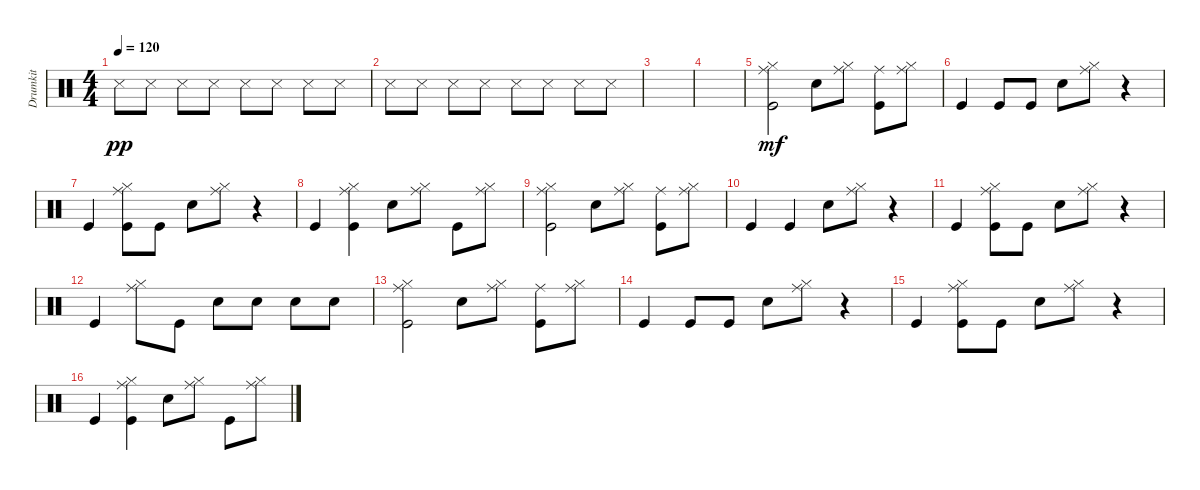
\track ("Drumkit" "Drumkit") {instrument percussion}
\staff {score}
\articulation defaults
\ts (4 4)
\tempo 120
\clef neutral
\ks c "Snare (side stick) 3".8{dy pp} "Snare (side stick) 3".8 "Snare (side stick) 3".8 "Snare (side stick) 3".8 "Snare (side stick) 3".8 "Snare (side stick) 3".8 "Snare (side stick) 3".8 "Snare (side stick) 3".8
|
"Snare (side stick) 3".8 "Snare (side stick) 3".8 "Snare (side stick) 3".8 "Snare (side stick) 3".8 "Snare (side stick) 3".8 "Snare (side stick) 3".8 "Snare (side stick) 3".8 "Snare (side stick) 3".8 |
|
|
("Kick (hit)" "Ride (middle)" "Hi-Hat (closed)").2{dy mf} "Snare (hit) 2".8 ("Hi-Hat (closed)" "Ride (middle)").8 ("Kick (hit)" "Ride (middle)").8 ("Hi-Hat (closed)" "Ride (middle)").8 |
"Kick (hit)".4 "Kick (hit)".8 "Kick (hit)".8 "Snare (hit) 2".8 ("Hi-Hat (closed)" "Ride (middle)").8 r.4 |
"Kick (hit)".4 ("Kick (hit)" "Ride (middle)" "Hi-Hat (closed)").8 "Kick (hit)".8 "Snare (hit) 2".8 ("Hi-Hat (closed)" "Ride (middle)").8 r.4 |
"Kick (hit)".4 ("Kick (hit)" "Ride (middle)" "Hi-Hat (closed)").4 "Snare (hit) 2".8 ("Ride (middle)" "Hi-Hat (closed)").8 "Kick (hit)".8 ("Ride (middle)" "Hi-Hat (closed)").8 |
("Kick (hit)" "Ride (middle)" "Hi-Hat (closed)").2 "Snare (hit) 2".8 ("Hi-Hat (closed)" "Ride (middle)").8 ("Kick (hit)" "Ride (middle)").8 ("Hi-Hat (closed)" "Ride (middle)").8 |
"Kick (hit)".4 "Kick (hit)".4 "Snare (hit) 2".8 ("Hi-Hat (closed)" "Ride (middle)").8 r.4 |
"Kick (hit)".4 ("Kick (hit)" "Ride (middle)" "Hi-Hat (closed)").8 "Kick (hit)".8 "Snare (hit) 2".8 ("Hi-Hat (closed)" "Ride (middle)").8 r.4 |
"Kick (hit)".4 ("Ride (middle)" "Hi-Hat (closed)").8 "Kick (hit)".8 "Snare (hit) 2".8 "Snare (hit) 2".8 "Snare (hit) 2".8 "Snare (hit) 2".8 |
("Kick (hit)" "Ride (middle)" "Hi-Hat (closed)").2 "Snare (hit) 2".8 ("Hi-Hat (closed)" "Ride (middle)").8 ("Kick (hit)" "Ride (middle)").8 ("Hi-Hat (closed)" "Ride (middle)").8 |
"Kick (hit)".4 "Kick (hit)".8 "Kick (hit)".8 "Snare (hit) 2".8 ("Hi-Hat (closed)" "Ride (middle)").8 r.4 |
"Kick (hit)".4 ("Kick (hit)" "Ride (middle)" "Hi-Hat (closed)").8 "Kick (hit)".8 "Snare (hit) 2".8 ("Hi-Hat (closed)" "Ride (middle)").8 r.4 |
"Kick (hit)".4 ("Kick (hit)" "Ride (middle)" "Hi-Hat (closed)").4 "Snare (hit) 2".8 ("Ride (middle)" "Hi-Hat (closed)").8 "Kick (hit)".8 ("Ride (middle)" "Hi-Hat (closed)").8
